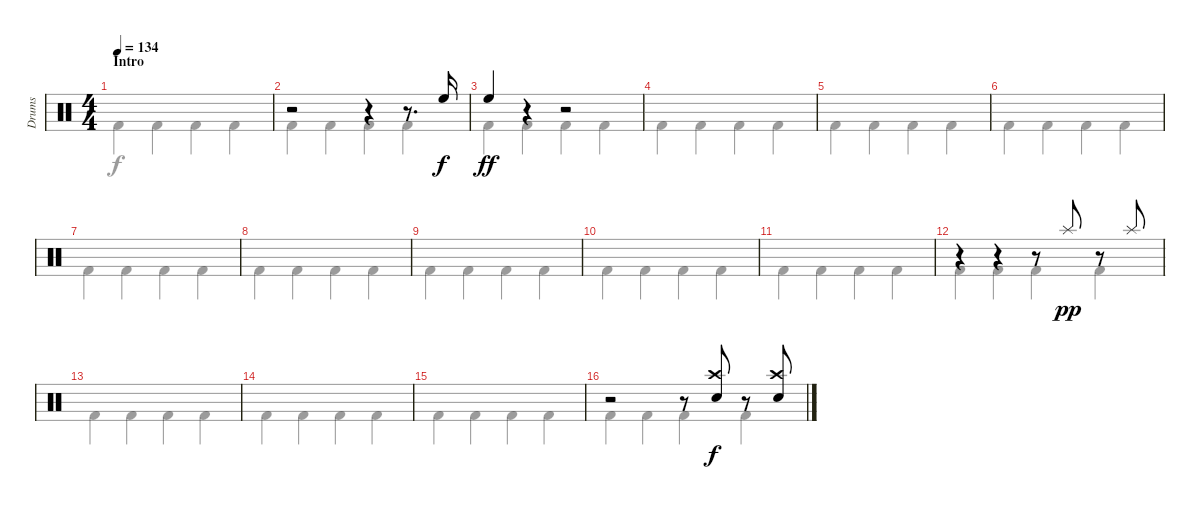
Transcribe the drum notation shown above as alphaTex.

\track ("Drums" "Drums") {instrument percussion}
\staff {score}
\articulation defaults
\voice
\ts (4 4)
\section ("" "Intro")
\tempo 134
\clef neutral
\ks c
|
r.2 r.4 r.8{d} "High Floor Tom (hit)".16 |
"High Floor Tom (hit)".4{dy ff} r.4 r.2 |
|
|
|
|
|
|
|
|
r.4 r.4 r.8 "Splash (hit)".8{dy pp} r.8 "Splash (hit)".8 |
|
|
|
r.2 r.8 ("Electric Snare (hit)" "Crash high (hit)").8{dy f} r.8 ("Electric Snare (hit)" "Crash high (hit)").8
\voice
\clef neutral
\ottava regular
\simile none
\ks c "Kick (hit) 2".4{dy f} "Kick (hit) 2".4 "Kick (hit) 2".4 "Kick (hit) 2".4
|
"Kick (hit) 2".4 "Kick (hit) 2".4 "Kick (hit) 2".4 "Kick (hit) 2".4 |
"Kick (hit) 2".4 "Kick (hit) 2".4 "Kick (hit) 2".4 "Kick (hit) 2".4 |
"Kick (hit) 2".4 "Kick (hit) 2".4 "Kick (hit) 2".4 "Kick (hit) 2".4 |
"Kick (hit) 2".4 "Kick (hit) 2".4 "Kick (hit) 2".4 "Kick (hit) 2".4 |
"Kick (hit) 2".4 "Kick (hit) 2".4 "Kick (hit) 2".4 "Kick (hit) 2".4 |
"Kick (hit) 2".4 "Kick (hit) 2".4 "Kick (hit) 2".4 "Kick (hit) 2".4 |
"Kick (hit) 2".4 "Kick (hit) 2".4 "Kick (hit) 2".4 "Kick (hit) 2".4 |
"Kick (hit) 2".4 "Kick (hit) 2".4 "Kick (hit) 2".4 "Kick (hit) 2".4 |
"Kick (hit) 2".4 "Kick (hit) 2".4 "Kick (hit) 2".4 "Kick (hit) 2".4 |
"Kick (hit) 2".4 "Kick (hit) 2".4 "Kick (hit) 2".4 "Kick (hit) 2".4 |
"Kick (hit) 2".4 "Kick (hit) 2".4 "Kick (hit) 2".4 "Kick (hit) 2".4 |
"Kick (hit) 2".4 "Kick (hit) 2".4 "Kick (hit) 2".4 "Kick (hit) 2".4 |
"Kick (hit) 2".4 "Kick (hit) 2".4 "Kick (hit) 2".4 "Kick (hit) 2".4 |
"Kick (hit) 2".4 "Kick (hit) 2".4 "Kick (hit) 2".4 "Kick (hit) 2".4 |
"Kick (hit) 2".4 "Kick (hit) 2".4 "Kick (hit) 2".4 "Kick (hit) 2".4
